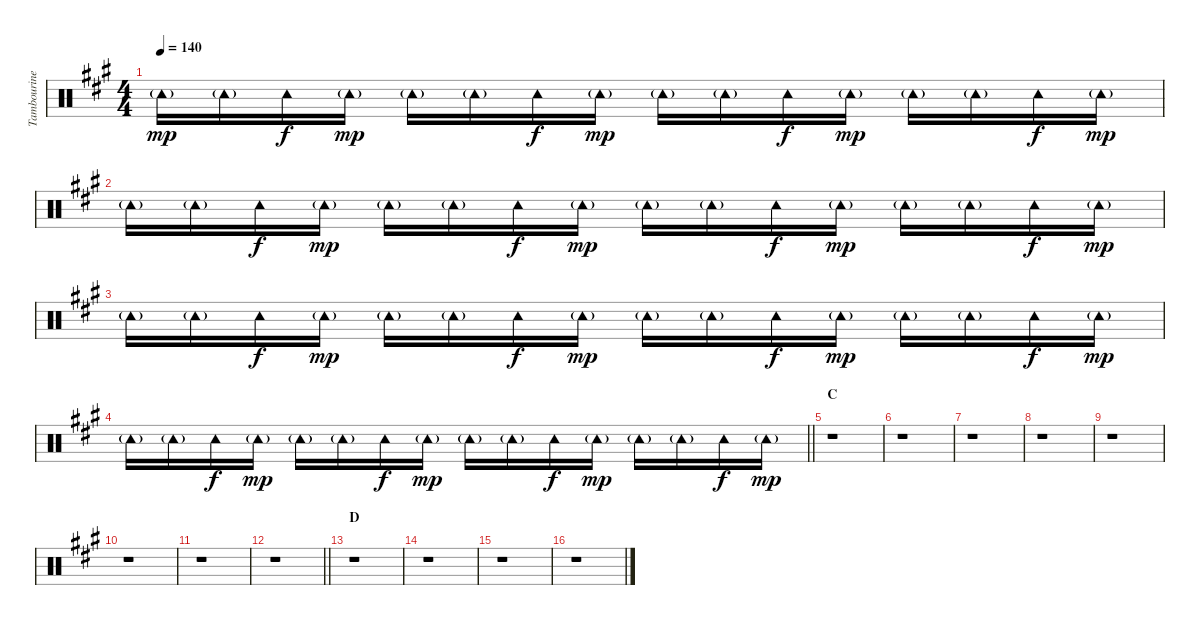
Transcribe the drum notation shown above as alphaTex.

\track ("Tambourine" "Tambourine") {instrument percussion}
\staff {score}
\articulation defaults
\ts (4 4)
\tempo 140
\clef neutral
\ks a "Tambourine (hit)"{g}.16{dy mp} "Tambourine (hit)"{g}.16 "Tambourine (hit)".16{dy f} "Tambourine (hit)"{g}.16{dy mp} "Tambourine (hit)"{g}.16 "Tambourine (hit)"{g}.16 "Tambourine (hit)".16{dy f} "Tambourine (hit)"{g}.16{dy mp} "Tambourine (hit)"{g}.16 "Tambourine (hit)"{g}.16 "Tambourine (hit)".16{dy f} "Tambourine (hit)"{g}.16{dy mp} "Tambourine (hit)"{g}.16 "Tambourine (hit)"{g}.16 "Tambourine (hit)".16{dy f} "Tambourine (hit)"{g}.16{dy mp}
|
"Tambourine (hit)"{g}.16 "Tambourine (hit)"{g}.16 "Tambourine (hit)".16{dy f} "Tambourine (hit)"{g}.16{dy mp} "Tambourine (hit)"{g}.16 "Tambourine (hit)"{g}.16 "Tambourine (hit)".16{dy f} "Tambourine (hit)"{g}.16{dy mp} "Tambourine (hit)"{g}.16 "Tambourine (hit)"{g}.16 "Tambourine (hit)".16{dy f} "Tambourine (hit)"{g}.16{dy mp} "Tambourine (hit)"{g}.16 "Tambourine (hit)"{g}.16 "Tambourine (hit)".16{dy f} "Tambourine (hit)"{g}.16{dy mp} |
"Tambourine (hit)"{g}.16 "Tambourine (hit)"{g}.16 "Tambourine (hit)".16{dy f} "Tambourine (hit)"{g}.16{dy mp} "Tambourine (hit)"{g}.16 "Tambourine (hit)"{g}.16 "Tambourine (hit)".16{dy f} "Tambourine (hit)"{g}.16{dy mp} "Tambourine (hit)"{g}.16 "Tambourine (hit)"{g}.16 "Tambourine (hit)".16{dy f} "Tambourine (hit)"{g}.16{dy mp} "Tambourine (hit)"{g}.16 "Tambourine (hit)"{g}.16 "Tambourine (hit)".16{dy f} "Tambourine (hit)"{g}.16{dy mp} |
\barLineRight lightlight "Tambourine (hit)"{g}.16 "Tambourine (hit)"{g}.16 "Tambourine (hit)".16{dy f} "Tambourine (hit)"{g}.16{dy mp} "Tambourine (hit)"{g}.16 "Tambourine (hit)"{g}.16 "Tambourine (hit)".16{dy f} "Tambourine (hit)"{g}.16{dy mp} "Tambourine (hit)"{g}.16 "Tambourine (hit)"{g}.16 "Tambourine (hit)".16{dy f} "Tambourine (hit)"{g}.16{dy mp} "Tambourine (hit)"{g}.16 "Tambourine (hit)"{g}.16 "Tambourine (hit)".16{dy f} "Tambourine (hit)"{g}.16{dy mp}
|
\section ("" "C")
r.1 |
r.1 |
r.1 |
r.1 |
r.1 |
r.1 |
r.1 |
\barLineRight lightlight
r.1 |
\section ("" "D")
r.1 |
r.1 |
r.1 |
r.1
